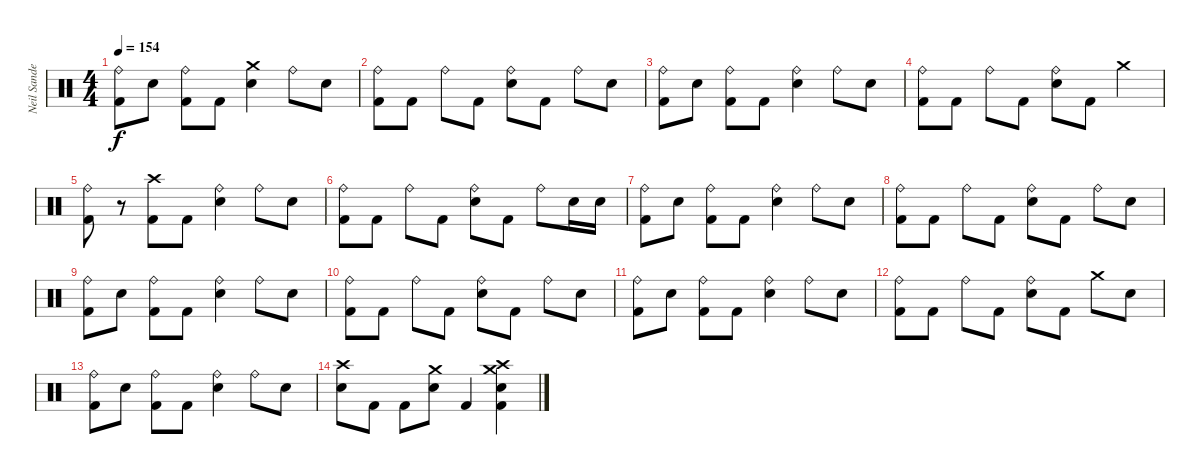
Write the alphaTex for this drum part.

\track ("Neil Sanderson" "Neil Sande") {instrument percussion}
\staff {score}
\articulation defaults
\ts (4 4)
\tempo 154
\clef neutral
\ks c
("Ride (bell)" "Kick (hit) 2").8{dy f} "Snare (hit) 2".8 ("Ride (bell)" "Kick (hit) 2").8 "Kick (hit) 2".8 ("Crash medium (hit)" "Snare (hit) 2").4 "Ride (bell)".8 "Snare (hit) 2".8 |
("Ride (bell)" "Kick (hit) 2").8 "Kick (hit) 2".8 "Ride (bell)".8 "Kick (hit) 2".8 ("Ride (bell)" "Snare (hit) 2").8 "Kick (hit) 2".8 "Ride (bell)".8 "Snare (hit) 2".8 |
("Ride (bell)" "Kick (hit) 2").8 "Snare (hit) 2".8 ("Ride (bell)" "Kick (hit) 2").8 "Kick (hit) 2".8 ("Ride (bell)" "Snare (hit) 2").4 "Ride (bell)".8 "Snare (hit) 2".8 |
("Ride (bell)" "Kick (hit) 2").8 "Kick (hit) 2".8 "Ride (bell)".8 "Kick (hit) 2".8 ("Ride (bell)" "Snare (hit) 2").8 "Kick (hit) 2".8 "Crash medium (hit)".4 |
("Ride (bell)" "Kick (hit) 2").8 r.8 ("Crash high (hit)" "Kick (hit) 2").8 "Kick (hit) 2".8 ("Ride (bell)" "Snare (hit) 2").4 "Ride (bell)".8 "Snare (hit) 2".8 |
("Ride (bell)" "Kick (hit) 2").8 "Kick (hit) 2".8 "Ride (bell)".8 "Kick (hit) 2".8 ("Ride (bell)" "Snare (hit) 2").8 "Kick (hit) 2".8 "Ride (bell)".8 "Snare (hit) 2".16 "Snare (hit) 2".16 |
("Ride (bell)" "Kick (hit) 2").8 "Snare (hit) 2".8 ("Ride (bell)" "Kick (hit) 2").8 "Kick (hit) 2".8 ("Ride (bell)" "Snare (hit) 2").4 "Ride (bell)".8 "Snare (hit) 2".8 |
("Ride (bell)" "Kick (hit) 2").8 "Kick (hit) 2".8 "Ride (bell)".8 "Kick (hit) 2".8 ("Ride (bell)" "Snare (hit) 2").8 "Kick (hit) 2".8 "Ride (bell)".8 "Snare (hit) 2".8 |
("Ride (bell)" "Kick (hit) 2").8 "Snare (hit) 2".8 ("Ride (bell)" "Kick (hit) 2").8 "Kick (hit) 2".8 ("Ride (bell)" "Snare (hit) 2").4 "Ride (bell)".8 "Snare (hit) 2".8 |
("Ride (bell)" "Kick (hit) 2").8 "Kick (hit) 2".8 "Ride (bell)".8 "Kick (hit) 2".8 ("Ride (bell)" "Snare (hit) 2").8 "Kick (hit) 2".8 "Ride (bell)".8 "Snare (hit) 2".8 |
("Ride (bell)" "Kick (hit) 2").8 "Snare (hit) 2".8 ("Ride (bell)" "Kick (hit) 2").8 "Kick (hit) 2".8 ("Ride (bell)" "Snare (hit) 2").4 "Ride (bell)".8 "Snare (hit) 2".8 |
("Ride (bell)" "Kick (hit) 2").8 "Kick (hit) 2".8 "Ride (bell)".8 "Kick (hit) 2".8 ("Ride (bell)" "Snare (hit) 2").8 "Kick (hit) 2".8 "Crash medium (hit)".8 "Snare (hit) 2".8 |
("Ride (bell)" "Kick (hit) 2").8 "Snare (hit) 2".8 ("Ride (bell)" "Kick (hit) 2").8 "Kick (hit) 2".8 ("Ride (bell)" "Snare (hit) 2").4 "Ride (bell)".8 "Snare (hit) 2".8 |
("Crash high (hit)" "Snare (hit) 2").8 "Kick (hit) 2".8 "Kick (hit) 2".8 ("Crash medium (hit)" "Snare (hit) 2").8 "Kick (hit) 2".4 ("Crash high (hit)" "Crash medium (hit)" "Snare (hit) 2" "Kick (hit) 2").4
